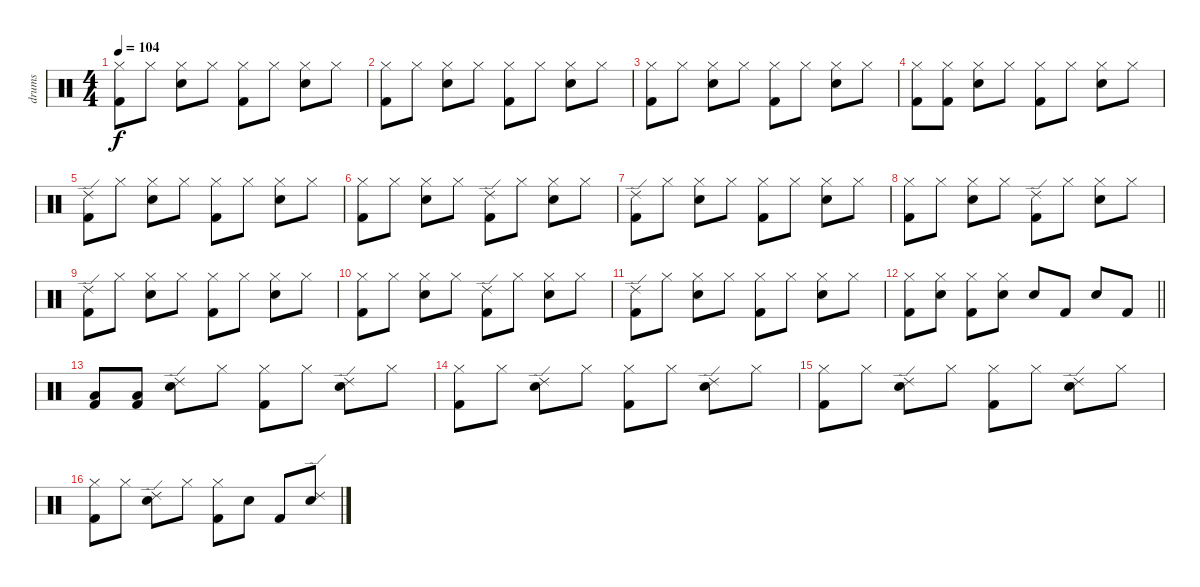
\track ("drums" "drums") {instrument percussion}
\staff {score}
\articulation defaults
\ts (4 4)
\tempo 104
\clef neutral
\ks c
("Hi-Hat (closed)" "Kick (hit) 2").8{dy f} "Hi-Hat (closed)".8 ("Hi-Hat (closed)" "Snare (hit) 2").8 "Hi-Hat (closed)".8 ("Hi-Hat (closed)" "Kick (hit) 2").8 "Hi-Hat (closed)".8 ("Hi-Hat (closed)" "Snare (hit) 2").8 "Hi-Hat (closed)".8 |
("Hi-Hat (closed)" "Kick (hit) 2").8 "Hi-Hat (closed)".8 ("Hi-Hat (closed)" "Snare (hit) 2").8 "Hi-Hat (closed)".8 ("Hi-Hat (closed)" "Kick (hit) 2").8 "Hi-Hat (closed)".8 ("Hi-Hat (closed)" "Snare (hit) 2").8 "Hi-Hat (closed)".8 |
("Hi-Hat (closed)" "Kick (hit) 2").8 "Hi-Hat (closed)".8 ("Hi-Hat (closed)" "Snare (hit) 2").8 "Hi-Hat (closed)".8 ("Hi-Hat (closed)" "Kick (hit) 2").8 "Hi-Hat (closed)".8 ("Hi-Hat (closed)" "Snare (hit) 2").8 "Hi-Hat (closed)".8 |
("Hi-Hat (closed)" "Kick (hit) 2").8 ("Hi-Hat (closed)" "Kick (hit) 2").8 ("Hi-Hat (closed)" "Snare (hit) 2").8 "Hi-Hat (closed)".8 ("Hi-Hat (closed)" "Kick (hit) 2").8 "Hi-Hat (closed)".8 ("Hi-Hat (closed)" "Snare (hit) 2").8 "Hi-Hat (closed)".8 |
("Kick (hit) 2" "Ride (edge) 2").8 "Hi-Hat (closed)".8 ("Hi-Hat (closed)" "Snare (hit) 2").8 "Hi-Hat (closed)".8 ("Hi-Hat (closed)" "Kick (hit) 2").8 "Hi-Hat (closed)".8 ("Hi-Hat (closed)" "Snare (hit) 2").8 "Hi-Hat (closed)".8 |
("Hi-Hat (closed)" "Kick (hit) 2").8 "Hi-Hat (closed)".8 ("Hi-Hat (closed)" "Snare (hit) 2").8 "Hi-Hat (closed)".8 ("Kick (hit) 2" "Ride (edge) 2").8 "Hi-Hat (closed)".8 ("Hi-Hat (closed)" "Snare (hit) 2").8 "Hi-Hat (closed)".8 |
("Kick (hit) 2" "Ride (edge) 2").8 "Hi-Hat (closed)".8 ("Hi-Hat (closed)" "Snare (hit) 2").8 "Hi-Hat (closed)".8 ("Hi-Hat (closed)" "Kick (hit) 2").8 "Hi-Hat (closed)".8 ("Hi-Hat (closed)" "Snare (hit) 2").8 "Hi-Hat (closed)".8 |
("Hi-Hat (closed)" "Kick (hit) 2").8 "Hi-Hat (closed)".8 ("Hi-Hat (closed)" "Snare (hit) 2").8 "Hi-Hat (closed)".8 ("Kick (hit) 2" "Ride (edge) 2").8 "Hi-Hat (closed)".8 ("Hi-Hat (closed)" "Snare (hit) 2").8 "Hi-Hat (closed)".8 |
("Kick (hit) 2" "Ride (edge) 2").8 "Hi-Hat (closed)".8 ("Hi-Hat (closed)" "Snare (hit) 2").8 "Hi-Hat (closed)".8 ("Hi-Hat (closed)" "Kick (hit) 2").8 "Hi-Hat (closed)".8 ("Hi-Hat (closed)" "Snare (hit) 2").8 "Hi-Hat (closed)".8 |
("Hi-Hat (closed)" "Kick (hit) 2").8 "Hi-Hat (closed)".8 ("Hi-Hat (closed)" "Snare (hit) 2").8 "Hi-Hat (closed)".8 ("Kick (hit) 2" "Ride (edge) 2").8 "Hi-Hat (closed)".8 ("Hi-Hat (closed)" "Snare (hit) 2").8 "Hi-Hat (closed)".8 |
("Kick (hit) 2" "Ride (edge) 2").8 "Hi-Hat (closed)".8 ("Hi-Hat (closed)" "Snare (hit) 2").8 "Hi-Hat (closed)".8 ("Hi-Hat (closed)" "Kick (hit) 2").8 "Hi-Hat (closed)".8 ("Hi-Hat (closed)" "Snare (hit) 2").8 "Hi-Hat (closed)".8 |
\barLineRight lightlight
("Hi-Hat (closed)" "Kick (hit) 2").8 ("Hi-Hat (closed)" "Snare (hit) 2").8 ("Hi-Hat (closed)" "Kick (hit) 2").8 ("Hi-Hat (closed)" "Snare (hit) 2").8 "Snare (hit) 2".8 "Kick (hit) 2".8 "Snare (hit) 2".8 "Kick (hit) 2".8 |
("Kick (hit) 2" "Low Floor Tom (hit)").8 ("Kick (hit) 2" "Low Floor Tom (hit)").8 ("Snare (hit) 2" "Ride (edge) 2").8 "Hi-Hat (closed)".8 ("Hi-Hat (closed)" "Kick (hit) 2").8 "Hi-Hat (closed)".8 ("Snare (hit) 2" "Ride (edge) 2").8 "Hi-Hat (closed)".8 |
("Hi-Hat (closed)" "Kick (hit) 2").8 "Hi-Hat (closed)".8 ("Snare (hit) 2" "Ride (edge) 2").8 "Hi-Hat (closed)".8 ("Hi-Hat (closed)" "Kick (hit) 2").8 "Hi-Hat (closed)".8 ("Snare (hit) 2" "Ride (edge) 2").8 "Hi-Hat (closed)".8 |
("Hi-Hat (closed)" "Kick (hit) 2").8 "Hi-Hat (closed)".8 ("Snare (hit) 2" "Ride (edge) 2").8 "Hi-Hat (closed)".8 ("Hi-Hat (closed)" "Kick (hit) 2").8 "Hi-Hat (closed)".8 ("Snare (hit) 2" "Ride (edge) 2").8 "Hi-Hat (closed)".8 |
("Hi-Hat (closed)" "Kick (hit) 2").8 "Hi-Hat (closed)".8 ("Snare (hit) 2" "Ride (edge) 2").8 "Hi-Hat (closed)".8 ("Hi-Hat (closed)" "Kick (hit) 2").8 "Snare (hit) 2".8 "Kick (hit) 2".8 ("Snare (hit) 2" "Ride (edge) 2").8
